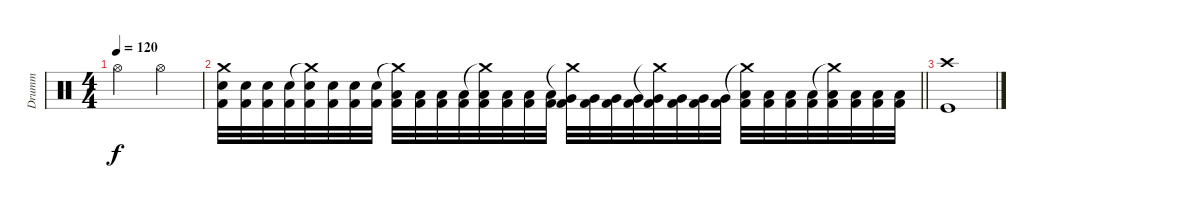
\track ("Drumm" "Drumm") {instrument percussion}
\staff {score}
\articulation defaults
\ts (4 4)
\tempo 120
\clef neutral
\ks c "Hi-Hat (open)".2{dy f} "Hi-Hat (open)".2
|
\barLineRight lightlight
("Crash medium (hit)" "Electric Snare (hit)" "Kick (hit) 2").32 ("Electric Snare (hit)" "Kick (hit) 2").32 ("Electric Snare (hit)" "Kick (hit) 2").32 ("Electric Snare (hit)" "Kick (hit) 2").32 ("Crash medium (hit)"{t} "Electric Snare (hit)" "Kick (hit) 2").32 ("Electric Snare (hit)" "Kick (hit) 2").32 ("Electric Snare (hit)" "Kick (hit) 2").32 ("Electric Snare (hit)" "Kick (hit) 2").32 ("Crash medium (hit)"{t} "Low Tom (hit)" "Kick (hit) 2").32 ("Low Tom (hit)" "Kick (hit) 2").32 ("Low Tom (hit)" "Kick (hit) 2").32 ("Low Tom (hit)" "Kick (hit) 2").32 ("Crash medium (hit)"{t} "Low Tom (hit)" "Kick (hit) 2").32 ("Low Tom (hit)" "Kick (hit) 2").32 ("Low Tom (hit)" "Kick (hit) 2").32 ("Low Tom (hit)" "Kick (hit) 2").32 ("Crash medium (hit)"{t} "Very Low Tom (hit)" "Kick (hit) 2").32 ("Very Low Tom (hit)" "Kick (hit) 2").32 ("Very Low Tom (hit)" "Kick (hit) 2").32 ("Very Low Tom (hit)" "Kick (hit) 2").32 ("Crash medium (hit)"{t} "Very Low Tom (hit)" "Kick (hit) 2").32 ("Very Low Tom (hit)" "Kick (hit) 2").32 ("Very Low Tom (hit)" "Kick (hit) 2").32 ("Very Low Tom (hit)" "Kick (hit) 2").32 ("Crash medium (hit)"{t} "Low Floor Tom (hit)" "Kick (hit) 2").32 ("Low Floor Tom (hit)" "Kick (hit) 2").32 ("Low Floor Tom (hit)" "Kick (hit) 2").32 ("Low Floor Tom (hit)" "Kick (hit) 2").32 ("Crash medium (hit)"{t} "Low Floor Tom (hit)" "Kick (hit) 2").32 ("Low Floor Tom (hit)" "Kick (hit) 2").32 ("Low Floor Tom (hit)" "Kick (hit) 2").32 ("Low Floor Tom (hit)" "Kick (hit) 2").32 |
("Crash high (hit)" "Kick (hit)").1
